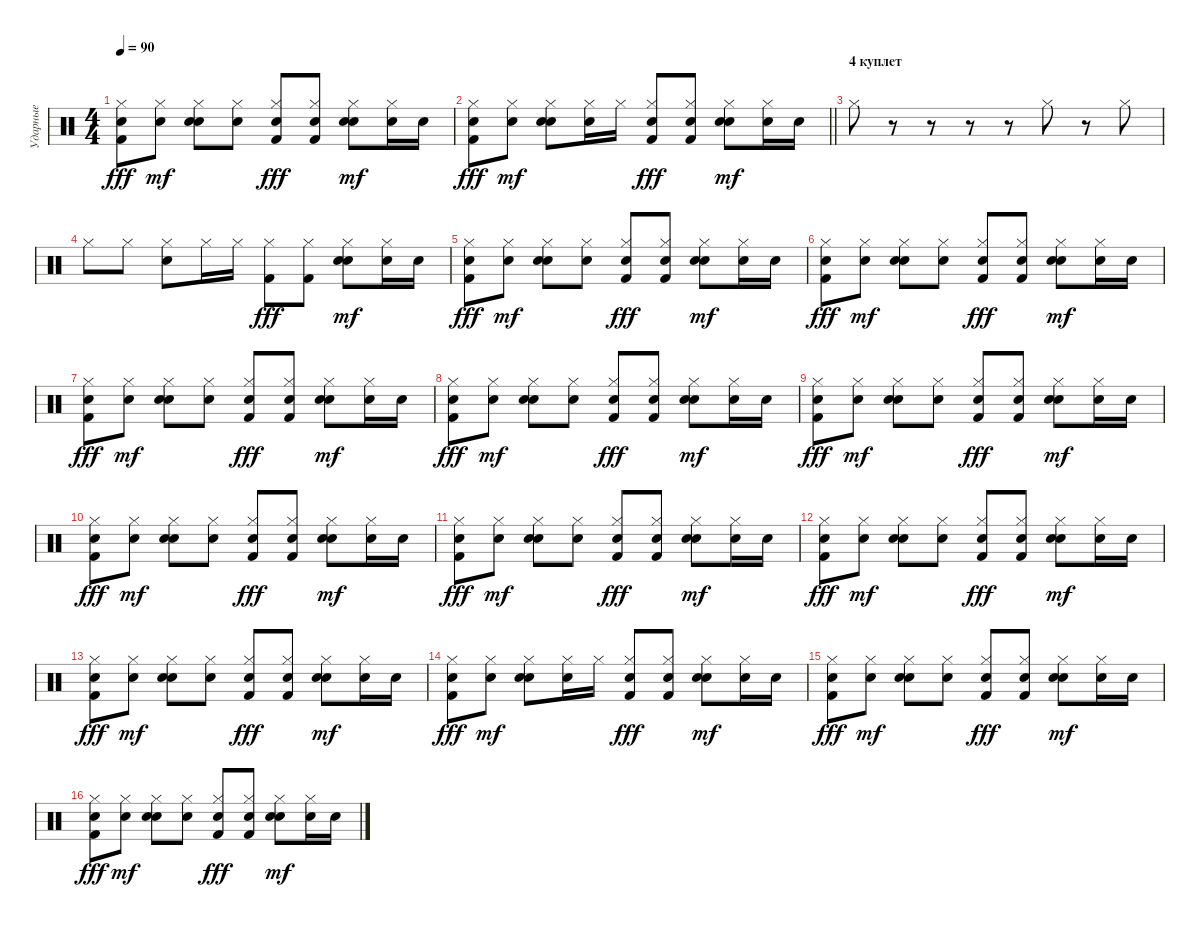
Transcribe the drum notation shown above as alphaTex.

\track ("Ударные" "Ударные") {instrument percussion}
\staff {score}
\articulation defaults
\ts (4 4)
\tempo 90
\clef neutral
\ks c
("Hand Clap (hit)" "Hi-Hat (closed)" "Kick (hit) 2").8{dy fff} ("Hand Clap (hit)" "Hi-Hat (closed)").8{dy mf} ("Hand Clap (hit)" "Hi-Hat (closed)" "Snare (hit) 2").8 ("Hand Clap (hit)" "Hi-Hat (closed)").8 ("Hand Clap (hit)" "Hi-Hat (closed)" "Kick (hit) 2").8{dy fff} ("Hand Clap (hit)" "Hi-Hat (closed)" "Kick (hit) 2").8 ("Hand Clap (hit)" "Hi-Hat (closed)" "Snare (hit) 2").8{dy mf} ("Hand Clap (hit)" "Hi-Hat (closed)").16 "Hand Clap (hit)".16 |
\barLineRight lightlight
("Hand Clap (hit)" "Hi-Hat (closed)" "Kick (hit) 2").8{dy fff} ("Hand Clap (hit)" "Hi-Hat (closed)").8{dy mf} ("Hand Clap (hit)" "Hi-Hat (closed)" "Snare (hit) 2").8 ("Hand Clap (hit)" "Hi-Hat (closed)").16 "Hi-Hat (closed)".16 ("Hand Clap (hit)" "Hi-Hat (closed)" "Kick (hit) 2").8{dy fff} ("Hand Clap (hit)" "Hi-Hat (closed)" "Kick (hit) 2").8 ("Hand Clap (hit)" "Hi-Hat (closed)" "Snare (hit) 2").8{dy mf} ("Hand Clap (hit)" "Hi-Hat (closed)").16 "Hand Clap (hit)".16 |
\section ("" "4 куплет")
"Hi-Hat (closed)".8 r.8 r.8 r.8 r.8 "Hi-Hat (closed)".8 r.8 "Hi-Hat (closed)".8 |
"Hi-Hat (closed)".8 "Hi-Hat (closed)".8 ("Hi-Hat (closed)" "Snare (hit) 2").8 "Hi-Hat (closed)".16 "Hi-Hat (closed)".16 ("Hi-Hat (closed)" "Kick (hit) 2").8{dy fff} ("Hi-Hat (closed)" "Kick (hit) 2").8 ("Hand Clap (hit)" "Hi-Hat (closed)" "Snare (hit) 2").8{dy mf} ("Hand Clap (hit)" "Hi-Hat (closed)").16 "Hand Clap (hit)".16 |
("Hand Clap (hit)" "Hi-Hat (closed)" "Kick (hit) 2").8{dy fff} ("Hand Clap (hit)" "Hi-Hat (closed)").8{dy mf} ("Hand Clap (hit)" "Hi-Hat (closed)" "Snare (hit) 2").8 ("Hand Clap (hit)" "Hi-Hat (closed)").8 ("Hand Clap (hit)" "Hi-Hat (closed)" "Kick (hit) 2").8{dy fff} ("Hand Clap (hit)" "Hi-Hat (closed)" "Kick (hit) 2").8 ("Hand Clap (hit)" "Hi-Hat (closed)" "Snare (hit) 2").8{dy mf} ("Hand Clap (hit)" "Hi-Hat (closed)").16 "Hand Clap (hit)".16 |
("Hand Clap (hit)" "Hi-Hat (closed)" "Kick (hit) 2").8{dy fff} ("Hand Clap (hit)" "Hi-Hat (closed)").8{dy mf} ("Hand Clap (hit)" "Hi-Hat (closed)" "Snare (hit) 2").8 ("Hand Clap (hit)" "Hi-Hat (closed)").8 ("Hand Clap (hit)" "Hi-Hat (closed)" "Kick (hit) 2").8{dy fff} ("Hand Clap (hit)" "Hi-Hat (closed)" "Kick (hit) 2").8 ("Hand Clap (hit)" "Hi-Hat (closed)" "Snare (hit) 2").8{dy mf} ("Hand Clap (hit)" "Hi-Hat (closed)").16 "Hand Clap (hit)".16 |
("Hand Clap (hit)" "Hi-Hat (closed)" "Kick (hit) 2").8{dy fff} ("Hand Clap (hit)" "Hi-Hat (closed)").8{dy mf} ("Hand Clap (hit)" "Hi-Hat (closed)" "Snare (hit) 2").8 ("Hand Clap (hit)" "Hi-Hat (closed)").8 ("Hand Clap (hit)" "Hi-Hat (closed)" "Kick (hit) 2").8{dy fff} ("Hand Clap (hit)" "Hi-Hat (closed)" "Kick (hit) 2").8 ("Hand Clap (hit)" "Hi-Hat (closed)" "Snare (hit) 2").8{dy mf} ("Hand Clap (hit)" "Hi-Hat (closed)").16 "Hand Clap (hit)".16 |
("Hand Clap (hit)" "Hi-Hat (closed)" "Kick (hit) 2").8{dy fff} ("Hand Clap (hit)" "Hi-Hat (closed)").8{dy mf} ("Hand Clap (hit)" "Hi-Hat (closed)" "Snare (hit) 2").8 ("Hand Clap (hit)" "Hi-Hat (closed)").8 ("Hand Clap (hit)" "Hi-Hat (closed)" "Kick (hit) 2").8{dy fff} ("Hand Clap (hit)" "Hi-Hat (closed)" "Kick (hit) 2").8 ("Hand Clap (hit)" "Hi-Hat (closed)" "Snare (hit) 2").8{dy mf} ("Hand Clap (hit)" "Hi-Hat (closed)").16 "Hand Clap (hit)".16 |
("Hand Clap (hit)" "Hi-Hat (closed)" "Kick (hit) 2").8{dy fff} ("Hand Clap (hit)" "Hi-Hat (closed)").8{dy mf} ("Hand Clap (hit)" "Hi-Hat (closed)" "Snare (hit) 2").8 ("Hand Clap (hit)" "Hi-Hat (closed)").8 ("Hand Clap (hit)" "Hi-Hat (closed)" "Kick (hit) 2").8{dy fff} ("Hand Clap (hit)" "Hi-Hat (closed)" "Kick (hit) 2").8 ("Hand Clap (hit)" "Hi-Hat (closed)" "Snare (hit) 2").8{dy mf} ("Hand Clap (hit)" "Hi-Hat (closed)").16 "Hand Clap (hit)".16 |
("Hand Clap (hit)" "Hi-Hat (closed)" "Kick (hit) 2").8{dy fff} ("Hand Clap (hit)" "Hi-Hat (closed)").8{dy mf} ("Hand Clap (hit)" "Hi-Hat (closed)" "Snare (hit) 2").8 ("Hand Clap (hit)" "Hi-Hat (closed)").8 ("Hand Clap (hit)" "Hi-Hat (closed)" "Kick (hit) 2").8{dy fff} ("Hand Clap (hit)" "Hi-Hat (closed)" "Kick (hit) 2").8 ("Hand Clap (hit)" "Hi-Hat (closed)" "Snare (hit) 2").8{dy mf} ("Hand Clap (hit)" "Hi-Hat (closed)").16 "Hand Clap (hit)".16 |
("Hand Clap (hit)" "Hi-Hat (closed)" "Kick (hit) 2").8{dy fff} ("Hand Clap (hit)" "Hi-Hat (closed)").8{dy mf} ("Hand Clap (hit)" "Hi-Hat (closed)" "Snare (hit) 2").8 ("Hand Clap (hit)" "Hi-Hat (closed)").8 ("Hand Clap (hit)" "Hi-Hat (closed)" "Kick (hit) 2").8{dy fff} ("Hand Clap (hit)" "Hi-Hat (closed)" "Kick (hit) 2").8 ("Hand Clap (hit)" "Hi-Hat (closed)" "Snare (hit) 2").8{dy mf} ("Hand Clap (hit)" "Hi-Hat (closed)").16 "Hand Clap (hit)".16 |
("Hand Clap (hit)" "Hi-Hat (closed)" "Kick (hit) 2").8{dy fff} ("Hand Clap (hit)" "Hi-Hat (closed)").8{dy mf} ("Hand Clap (hit)" "Hi-Hat (closed)" "Snare (hit) 2").8 ("Hand Clap (hit)" "Hi-Hat (closed)").8 ("Hand Clap (hit)" "Hi-Hat (closed)" "Kick (hit) 2").8{dy fff} ("Hand Clap (hit)" "Hi-Hat (closed)" "Kick (hit) 2").8 ("Hand Clap (hit)" "Hi-Hat (closed)" "Snare (hit) 2").8{dy mf} ("Hand Clap (hit)" "Hi-Hat (closed)").16 "Hand Clap (hit)".16 |
("Hand Clap (hit)" "Hi-Hat (closed)" "Kick (hit) 2").8{dy fff} ("Hand Clap (hit)" "Hi-Hat (closed)").8{dy mf} ("Hand Clap (hit)" "Hi-Hat (closed)" "Snare (hit) 2").8 ("Hand Clap (hit)" "Hi-Hat (closed)").8 ("Hand Clap (hit)" "Hi-Hat (closed)" "Kick (hit) 2").8{dy fff} ("Hand Clap (hit)" "Hi-Hat (closed)" "Kick (hit) 2").8 ("Hand Clap (hit)" "Hi-Hat (closed)" "Snare (hit) 2").8{dy mf} ("Hand Clap (hit)" "Hi-Hat (closed)").16 "Hand Clap (hit)".16 |
("Hand Clap (hit)" "Hi-Hat (closed)" "Kick (hit) 2").8{dy fff} ("Hand Clap (hit)" "Hi-Hat (closed)").8{dy mf} ("Hand Clap (hit)" "Hi-Hat (closed)" "Snare (hit) 2").8 ("Hand Clap (hit)" "Hi-Hat (closed)").16 "Hi-Hat (closed)".16 ("Hand Clap (hit)" "Hi-Hat (closed)" "Kick (hit) 2").8{dy fff} ("Hand Clap (hit)" "Hi-Hat (closed)" "Kick (hit) 2").8 ("Hand Clap (hit)" "Hi-Hat (closed)" "Snare (hit) 2").8{dy mf} ("Hand Clap (hit)" "Hi-Hat (closed)").16 "Hand Clap (hit)".16 |
("Hand Clap (hit)" "Hi-Hat (closed)" "Kick (hit) 2").8{dy fff} ("Hand Clap (hit)" "Hi-Hat (closed)").8{dy mf} ("Hand Clap (hit)" "Hi-Hat (closed)" "Snare (hit) 2").8 ("Hand Clap (hit)" "Hi-Hat (closed)").8 ("Hand Clap (hit)" "Hi-Hat (closed)" "Kick (hit) 2").8{dy fff} ("Hand Clap (hit)" "Hi-Hat (closed)" "Kick (hit) 2").8 ("Hand Clap (hit)" "Hi-Hat (closed)" "Snare (hit) 2").8{dy mf} ("Hand Clap (hit)" "Hi-Hat (closed)").16 "Hand Clap (hit)".16 |
("Hand Clap (hit)" "Hi-Hat (closed)" "Kick (hit) 2").8{dy fff} ("Hand Clap (hit)" "Hi-Hat (closed)").8{dy mf} ("Hand Clap (hit)" "Hi-Hat (closed)" "Snare (hit) 2").8 ("Hand Clap (hit)" "Hi-Hat (closed)").8 ("Hand Clap (hit)" "Hi-Hat (closed)" "Kick (hit) 2").8{dy fff} ("Hand Clap (hit)" "Hi-Hat (closed)" "Kick (hit) 2").8 ("Hand Clap (hit)" "Hi-Hat (closed)" "Snare (hit) 2").8{dy mf} ("Hand Clap (hit)" "Hi-Hat (closed)").16 "Hand Clap (hit)".16
